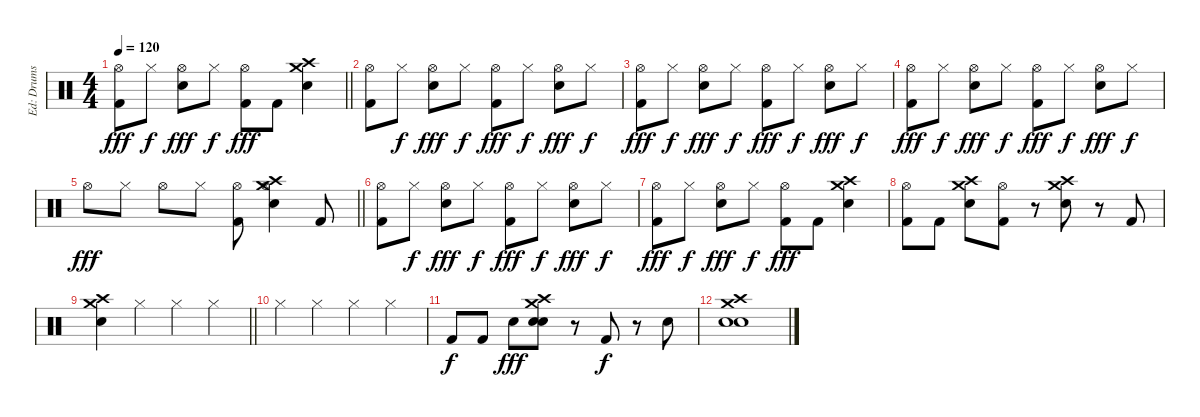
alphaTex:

\track ("Ed: Drums" "Ed: Drums") {instrument percussion}
\staff {score}
\articulation defaults
\ts (4 4)
\tempo 120
\clef neutral
\barLineRight lightlight
\ks c
("Hi-Hat (open)" "Kick (hit) 2").8{dy fff} "Hi-Hat (closed)".8{dy f} ("Hi-Hat (open)" "Electric Snare (hit)").8{dy fff} "Hi-Hat (closed)".8{dy f} ("Hi-Hat (open)" "Kick (hit) 2").8{dy fff} "Kick (hit) 2".8 ("Crash high (hit)" "Crash medium (hit)" "Electric Snare (hit)").4 |
("Hi-Hat (open)" "Kick (hit) 2").8 "Hi-Hat (closed)".8{dy f} ("Hi-Hat (open)" "Electric Snare (hit)").8{dy fff} "Hi-Hat (closed)".8{dy f} ("Hi-Hat (open)" "Kick (hit) 2").8{dy fff} "Hi-Hat (closed)".8{dy f} ("Hi-Hat (open)" "Electric Snare (hit)").8{dy fff} "Hi-Hat (closed)".8{dy f} |
("Hi-Hat (open)" "Kick (hit) 2").8{dy fff} "Hi-Hat (closed)".8{dy f} ("Hi-Hat (open)" "Electric Snare (hit)").8{dy fff} "Hi-Hat (closed)".8{dy f} ("Hi-Hat (open)" "Kick (hit) 2").8{dy fff} "Hi-Hat (closed)".8{dy f} ("Hi-Hat (open)" "Electric Snare (hit)").8{dy fff} "Hi-Hat (closed)".8{dy f} |
("Hi-Hat (open)" "Kick (hit) 2").8{dy fff} "Hi-Hat (closed)".8{dy f} ("Hi-Hat (open)" "Electric Snare (hit)").8{dy fff} "Hi-Hat (closed)".8{dy f} ("Hi-Hat (open)" "Kick (hit) 2").8{dy fff} "Hi-Hat (closed)".8{dy f} ("Hi-Hat (open)" "Electric Snare (hit)").8{dy fff} "Hi-Hat (closed)".8{dy f} |
\barLineRight lightlight "Hi-Hat (open)".8{dy fff} "Hi-Hat (closed)".8 "Hi-Hat (open)".8 "Hi-Hat (closed)".8
("Hi-Hat (open)" "Kick (hit) 2").8 ("Crash medium (hit)" "Crash high (hit)" "Hi-Hat (open)" "Electric Snare (hit)").4 "Kick (hit) 2".8 |
("Hi-Hat (open)" "Kick (hit) 2").8 "Hi-Hat (closed)".8{dy f} ("Hi-Hat (open)" "Electric Snare (hit)").8{dy fff} "Hi-Hat (closed)".8{dy f} ("Hi-Hat (open)" "Kick (hit) 2").8{dy fff} "Hi-Hat (closed)".8{dy f} ("Hi-Hat (open)" "Electric Snare (hit)").8{dy fff} "Hi-Hat (closed)".8{dy f} |
("Hi-Hat (open)" "Kick (hit) 2").8{dy fff} "Hi-Hat (closed)".8{dy f} ("Hi-Hat (open)" "Electric Snare (hit)").8{dy fff} "Hi-Hat (closed)".8{dy f} ("Hi-Hat (open)" "Kick (hit) 2").8{dy fff} "Kick (hit) 2".8 ("Crash medium (hit)" "Crash high (hit)" "Electric Snare (hit)").4 |
("Hi-Hat (open)" "Kick (hit) 2").8 "Kick (hit) 2".8 ("Crash high (hit)" "Crash medium (hit)" "Electric Snare (hit)").8 ("Hi-Hat (open)" "Kick (hit) 2").8 r.8 ("Crash medium (hit)" "Crash high (hit)" "Electric Snare (hit)").8 r.8 "Kick (hit) 2".8 |
\barLineRight lightlight
("Crash medium (hit)" "Crash high (hit)" "Electric Snare (hit)").4 "Hi-Hat (closed)".4 "Hi-Hat (closed)".4 "Hi-Hat (closed)".4 |
"Hi-Hat (closed)".4 "Hi-Hat (closed)".4 "Hi-Hat (closed)".4 "Hi-Hat (closed)".4 |
"Kick (hit) 2".8{dy f} "Kick (hit) 2".8 "Electric Snare (hit)".8{dy fff} ("Crash medium (hit)" "Crash high (hit)" "Electric Snare (hit)" "Electric Snare (hit)").8 r.8 "Kick (hit) 2".8{dy f} r.8 "Electric Snare (hit)".8 |
("Crash medium (hit)" "Crash high (hit)" "Electric Snare (hit)" "Electric Snare (hit)").1
